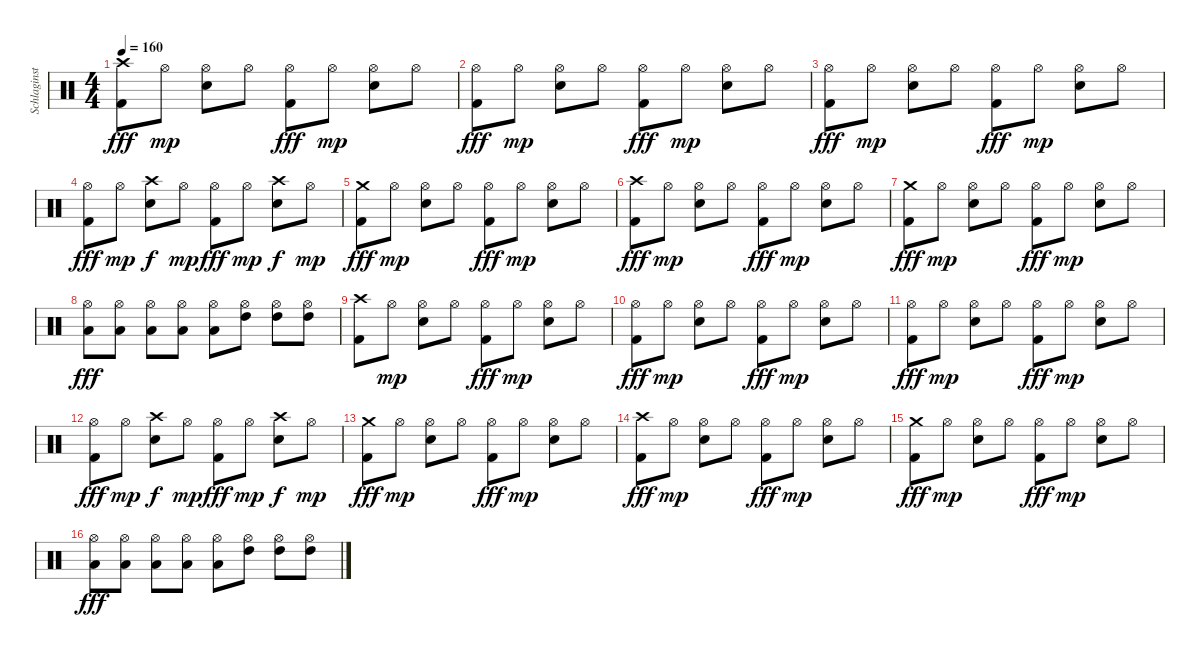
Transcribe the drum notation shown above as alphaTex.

\track ("Schlaginstrumente - Auswahl" "Schlaginst") {instrument percussion}
\staff {score}
\articulation defaults
\ts (4 4)
\tempo 160
\clef neutral
\ks c
("Crash high (hit)" "Kick (hit) 2").8{dy fff} "Hi-Hat (open)".8{dy mp} ("Hi-Hat (open)" "Electric Snare (hit)").8 "Hi-Hat (open)".8 ("Hi-Hat (open)" "Kick (hit) 2").8{dy fff} "Hi-Hat (open)".8{dy mp} ("Hi-Hat (open)" "Electric Snare (hit)").8 "Hi-Hat (open)".8 |
("Hi-Hat (open)" "Kick (hit) 2").8{dy fff} "Hi-Hat (open)".8{dy mp} ("Hi-Hat (open)" "Electric Snare (hit)").8 "Hi-Hat (open)".8 ("Hi-Hat (open)" "Kick (hit) 2").8{dy fff} "Hi-Hat (open)".8{dy mp} ("Hi-Hat (open)" "Electric Snare (hit)").8 "Hi-Hat (open)".8 |
("Hi-Hat (open)" "Kick (hit) 2").8{dy fff} "Hi-Hat (open)".8{dy mp} ("Hi-Hat (open)" "Electric Snare (hit)").8 "Hi-Hat (open)".8 ("Hi-Hat (open)" "Kick (hit) 2").8{dy fff} "Hi-Hat (open)".8{dy mp} ("Hi-Hat (open)" "Electric Snare (hit)").8 "Hi-Hat (open)".8 |
("Hi-Hat (open)" "Kick (hit) 2").8{dy fff} "Hi-Hat (open)".8{dy mp} ("Crash high (hit)" "Electric Snare (hit)").8{dy f} "Hi-Hat (open)".8{dy mp} ("Hi-Hat (open)" "Kick (hit) 2").8{dy fff} "Hi-Hat (open)".8{dy mp} ("Crash high (hit)" "Electric Snare (hit)").8{dy f} "Hi-Hat (open)".8{dy mp} |
("Crash medium (hit)" "Kick (hit) 2").8{dy fff} "Hi-Hat (open)".8{dy mp} ("Hi-Hat (open)" "Electric Snare (hit)").8 "Hi-Hat (open)".8 ("Hi-Hat (open)" "Kick (hit) 2").8{dy fff} "Hi-Hat (open)".8{dy mp} ("Hi-Hat (open)" "Electric Snare (hit)").8 "Hi-Hat (open)".8 |
("Crash high (hit)" "Kick (hit) 2").8{dy fff} "Hi-Hat (open)".8{dy mp} ("Hi-Hat (open)" "Electric Snare (hit)").8 "Hi-Hat (open)".8 ("Hi-Hat (open)" "Kick (hit) 2").8{dy fff} "Hi-Hat (open)".8{dy mp} ("Hi-Hat (open)" "Electric Snare (hit)").8 "Hi-Hat (open)".8 |
("Crash medium (hit)" "Kick (hit) 2").8{dy fff} "Hi-Hat (open)".8{dy mp} ("Hi-Hat (open)" "Electric Snare (hit)").8 "Hi-Hat (open)".8 ("Hi-Hat (open)" "Kick (hit) 2").8{dy fff} "Hi-Hat (open)".8{dy mp} ("Hi-Hat (open)" "Electric Snare (hit)").8 "Hi-Hat (open)".8 |
("Hi-Hat (open)" "Low Floor Tom (hit)").8{dy fff} ("Hi-Hat (open)" "Low Floor Tom (hit)").8 ("Hi-Hat (open)" "Low Floor Tom (hit)").8 ("Hi-Hat (open)" "Low Tom (hit)").8 ("Hi-Hat (open)" "Low Tom (hit)").8 ("Hi-Hat (open)" "High Tom (hit)").8 ("Hi-Hat (open)" "High Tom (hit)").8 ("Hi-Hat (open)" "High Tom (hit)").8 |
("Crash high (hit)" "Kick (hit) 2").8 "Hi-Hat (open)".8{dy mp} ("Hi-Hat (open)" "Electric Snare (hit)").8 "Hi-Hat (open)".8 ("Hi-Hat (open)" "Kick (hit) 2").8{dy fff} "Hi-Hat (open)".8{dy mp} ("Hi-Hat (open)" "Electric Snare (hit)").8 "Hi-Hat (open)".8 |
("Hi-Hat (open)" "Kick (hit) 2").8{dy fff} "Hi-Hat (open)".8{dy mp} ("Hi-Hat (open)" "Electric Snare (hit)").8 "Hi-Hat (open)".8 ("Hi-Hat (open)" "Kick (hit) 2").8{dy fff} "Hi-Hat (open)".8{dy mp} ("Hi-Hat (open)" "Electric Snare (hit)").8 "Hi-Hat (open)".8 |
("Hi-Hat (open)" "Kick (hit) 2").8{dy fff} "Hi-Hat (open)".8{dy mp} ("Hi-Hat (open)" "Electric Snare (hit)").8 "Hi-Hat (open)".8 ("Hi-Hat (open)" "Kick (hit) 2").8{dy fff} "Hi-Hat (open)".8{dy mp} ("Hi-Hat (open)" "Electric Snare (hit)").8 "Hi-Hat (open)".8 |
("Hi-Hat (open)" "Kick (hit) 2").8{dy fff} "Hi-Hat (open)".8{dy mp} ("Crash high (hit)" "Electric Snare (hit)").8{dy f} "Hi-Hat (open)".8{dy mp} ("Hi-Hat (open)" "Kick (hit) 2").8{dy fff} "Hi-Hat (open)".8{dy mp} ("Crash high (hit)" "Electric Snare (hit)").8{dy f} "Hi-Hat (open)".8{dy mp} |
("Crash medium (hit)" "Kick (hit) 2").8{dy fff} "Hi-Hat (open)".8{dy mp} ("Hi-Hat (open)" "Electric Snare (hit)").8 "Hi-Hat (open)".8 ("Hi-Hat (open)" "Kick (hit) 2").8{dy fff} "Hi-Hat (open)".8{dy mp} ("Hi-Hat (open)" "Electric Snare (hit)").8 "Hi-Hat (open)".8 |
("Crash high (hit)" "Kick (hit) 2").8{dy fff} "Hi-Hat (open)".8{dy mp} ("Hi-Hat (open)" "Electric Snare (hit)").8 "Hi-Hat (open)".8 ("Hi-Hat (open)" "Kick (hit) 2").8{dy fff} "Hi-Hat (open)".8{dy mp} ("Hi-Hat (open)" "Electric Snare (hit)").8 "Hi-Hat (open)".8 |
("Crash medium (hit)" "Kick (hit) 2").8{dy fff} "Hi-Hat (open)".8{dy mp} ("Hi-Hat (open)" "Electric Snare (hit)").8 "Hi-Hat (open)".8 ("Hi-Hat (open)" "Kick (hit) 2").8{dy fff} "Hi-Hat (open)".8{dy mp} ("Hi-Hat (open)" "Electric Snare (hit)").8 "Hi-Hat (open)".8 |
("Hi-Hat (open)" "Low Floor Tom (hit)").8{dy fff} ("Hi-Hat (open)" "Low Floor Tom (hit)").8 ("Hi-Hat (open)" "Low Floor Tom (hit)").8 ("Hi-Hat (open)" "Low Tom (hit)").8 ("Hi-Hat (open)" "Low Tom (hit)").8 ("Hi-Hat (open)" "High Tom (hit)").8 ("Hi-Hat (open)" "High Tom (hit)").8 ("Hi-Hat (open)" "High Tom (hit)").8
